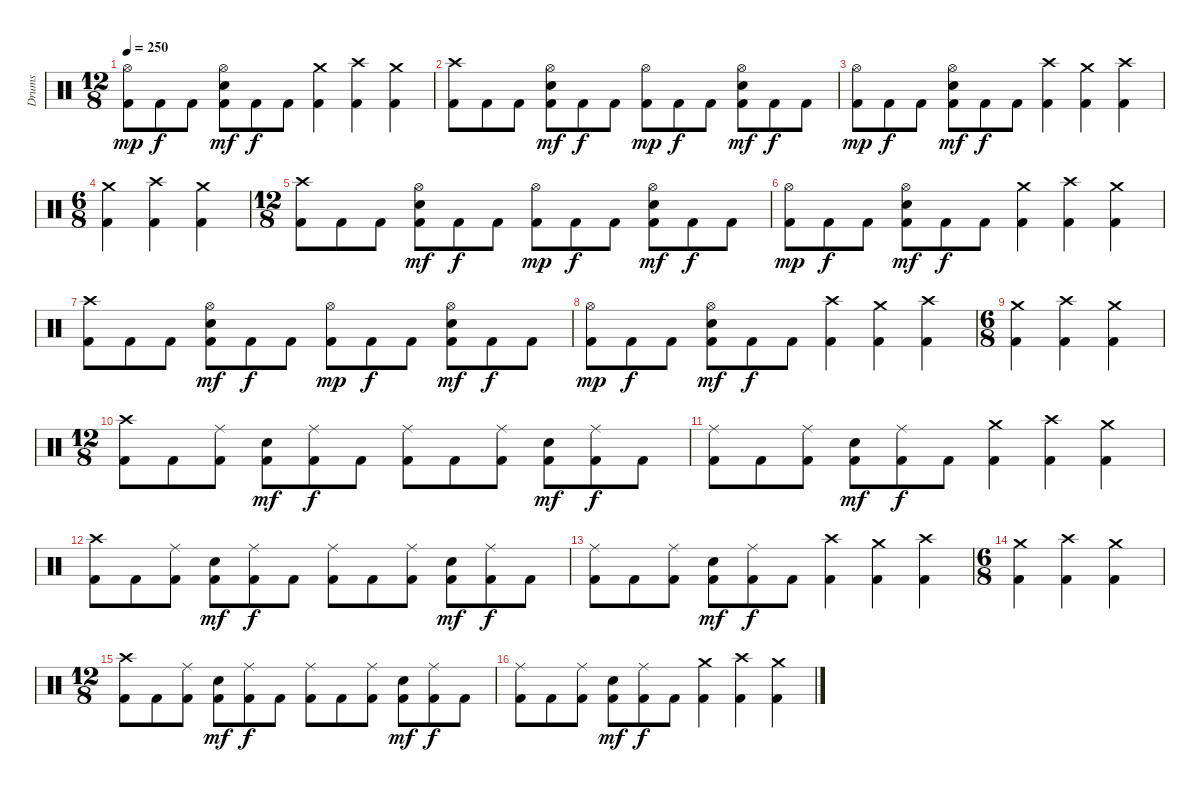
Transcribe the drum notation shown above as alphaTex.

\track ("Drums" "Drums") {instrument percussion}
\staff {score}
\articulation defaults
\ts (12 8)
\tempo 250
\clef neutral
\ks c
("Hi-Hat (open)" "Kick (hit) 2").8{dy mp} "Kick (hit) 2".8{dy f} "Kick (hit) 2".8 ("Hi-Hat (open)" "Electric Snare (hit)" "Kick (hit) 2").8{dy mf} "Kick (hit) 2".8{dy f} "Kick (hit) 2".8 ("Crash medium (hit)" "Kick (hit) 2").4 ("Crash high (hit)" "Kick (hit) 2").4 ("Crash medium (hit)" "Kick (hit) 2").4 |
("Crash high (hit)" "Kick (hit) 2").8 "Kick (hit) 2".8 "Kick (hit) 2".8 ("Hi-Hat (open)" "Electric Snare (hit)" "Kick (hit) 2").8{dy mf} "Kick (hit) 2".8{dy f} "Kick (hit) 2".8 ("Hi-Hat (open)" "Kick (hit) 2").8{dy mp} "Kick (hit) 2".8{dy f} "Kick (hit) 2".8 ("Hi-Hat (open)" "Electric Snare (hit)" "Kick (hit) 2").8{dy mf} "Kick (hit) 2".8{dy f} "Kick (hit) 2".8 |
("Hi-Hat (open)" "Kick (hit) 2").8{dy mp} "Kick (hit) 2".8{dy f} "Kick (hit) 2".8 ("Hi-Hat (open)" "Electric Snare (hit)" "Kick (hit) 2").8{dy mf} "Kick (hit) 2".8{dy f} "Kick (hit) 2".8 ("Crash high (hit)" "Kick (hit) 2").4 ("Crash medium (hit)" "Kick (hit) 2").4 ("Crash high (hit)" "Kick (hit) 2").4 |
\ts (6 8)
("Crash medium (hit)" "Kick (hit) 2").4 ("Crash high (hit)" "Kick (hit) 2").4 ("Crash medium (hit)" "Kick (hit) 2").4 |
\ts (12 8)
("Crash high (hit)" "Kick (hit) 2").8 "Kick (hit) 2".8 "Kick (hit) 2".8 ("Hi-Hat (open)" "Electric Snare (hit)" "Kick (hit) 2").8{dy mf} "Kick (hit) 2".8{dy f} "Kick (hit) 2".8 ("Hi-Hat (open)" "Kick (hit) 2").8{dy mp} "Kick (hit) 2".8{dy f} "Kick (hit) 2".8 ("Hi-Hat (open)" "Electric Snare (hit)" "Kick (hit) 2").8{dy mf} "Kick (hit) 2".8{dy f} "Kick (hit) 2".8 |
("Hi-Hat (open)" "Kick (hit) 2").8{dy mp} "Kick (hit) 2".8{dy f} "Kick (hit) 2".8 ("Hi-Hat (open)" "Electric Snare (hit)" "Kick (hit) 2").8{dy mf} "Kick (hit) 2".8{dy f} "Kick (hit) 2".8 ("Crash medium (hit)" "Kick (hit) 2").4 ("Crash high (hit)" "Kick (hit) 2").4 ("Crash medium (hit)" "Kick (hit) 2").4 |
("Crash high (hit)" "Kick (hit) 2").8 "Kick (hit) 2".8 "Kick (hit) 2".8 ("Hi-Hat (open)" "Electric Snare (hit)" "Kick (hit) 2").8{dy mf} "Kick (hit) 2".8{dy f} "Kick (hit) 2".8 ("Hi-Hat (open)" "Kick (hit) 2").8{dy mp} "Kick (hit) 2".8{dy f} "Kick (hit) 2".8 ("Hi-Hat (open)" "Electric Snare (hit)" "Kick (hit) 2").8{dy mf} "Kick (hit) 2".8{dy f} "Kick (hit) 2".8 |
("Hi-Hat (open)" "Kick (hit) 2").8{dy mp} "Kick (hit) 2".8{dy f} "Kick (hit) 2".8 ("Hi-Hat (open)" "Electric Snare (hit)" "Kick (hit) 2").8{dy mf} "Kick (hit) 2".8{dy f} "Kick (hit) 2".8 ("Crash high (hit)" "Kick (hit) 2").4 ("Crash medium (hit)" "Kick (hit) 2").4 ("Crash high (hit)" "Kick (hit) 2").4 |
\ts (6 8)
("Crash medium (hit)" "Kick (hit) 2").4 ("Crash high (hit)" "Kick (hit) 2").4 ("Crash medium (hit)" "Kick (hit) 2").4 |
\ts (12 8)
("Crash high (hit)" "Kick (hit) 2").8 "Kick (hit) 2".8 ("Ride (middle)" "Kick (hit) 2").8 ("Electric Snare (hit)" "Kick (hit) 2").8{dy mf} ("Ride (middle)" "Kick (hit) 2").8{dy f} "Kick (hit) 2".8 ("Ride (middle)" "Kick (hit) 2").8 "Kick (hit) 2".8 ("Ride (middle)" "Kick (hit) 2").8 ("Electric Snare (hit)" "Kick (hit) 2").8{dy mf} ("Ride (middle)" "Kick (hit) 2").8{dy f} "Kick (hit) 2".8 |
("Ride (middle)" "Kick (hit) 2").8 "Kick (hit) 2".8 ("Ride (middle)" "Kick (hit) 2").8 ("Electric Snare (hit)" "Kick (hit) 2").8{dy mf} ("Ride (middle)" "Kick (hit) 2").8{dy f} "Kick (hit) 2".8 ("Crash medium (hit)" "Kick (hit) 2").4 ("Crash high (hit)" "Kick (hit) 2").4 ("Crash medium (hit)" "Kick (hit) 2").4 |
("Crash high (hit)" "Kick (hit) 2").8 "Kick (hit) 2".8 ("Ride (middle)" "Kick (hit) 2").8 ("Electric Snare (hit)" "Kick (hit) 2").8{dy mf} ("Ride (middle)" "Kick (hit) 2").8{dy f} "Kick (hit) 2".8 ("Ride (middle)" "Kick (hit) 2").8 "Kick (hit) 2".8 ("Ride (middle)" "Kick (hit) 2").8 ("Electric Snare (hit)" "Kick (hit) 2").8{dy mf} ("Ride (middle)" "Kick (hit) 2").8{dy f} "Kick (hit) 2".8 |
("Ride (middle)" "Kick (hit) 2").8 "Kick (hit) 2".8 ("Ride (middle)" "Kick (hit) 2").8 ("Electric Snare (hit)" "Kick (hit) 2").8{dy mf} ("Ride (middle)" "Kick (hit) 2").8{dy f} "Kick (hit) 2".8 ("Crash high (hit)" "Kick (hit) 2").4 ("Crash medium (hit)" "Kick (hit) 2").4 ("Crash high (hit)" "Kick (hit) 2").4 |
\ts (6 8)
("Crash medium (hit)" "Kick (hit) 2").4 ("Crash high (hit)" "Kick (hit) 2").4 ("Crash medium (hit)" "Kick (hit) 2").4 |
\ts (12 8)
("Crash high (hit)" "Kick (hit) 2").8 "Kick (hit) 2".8 ("Ride (middle)" "Kick (hit) 2").8 ("Electric Snare (hit)" "Kick (hit) 2").8{dy mf} ("Ride (middle)" "Kick (hit) 2").8{dy f} "Kick (hit) 2".8 ("Ride (middle)" "Kick (hit) 2").8 "Kick (hit) 2".8 ("Ride (middle)" "Kick (hit) 2").8 ("Electric Snare (hit)" "Kick (hit) 2").8{dy mf} ("Ride (middle)" "Kick (hit) 2").8{dy f} "Kick (hit) 2".8 |
("Ride (middle)" "Kick (hit) 2").8 "Kick (hit) 2".8 ("Ride (middle)" "Kick (hit) 2").8 ("Electric Snare (hit)" "Kick (hit) 2").8{dy mf} ("Ride (middle)" "Kick (hit) 2").8{dy f} "Kick (hit) 2".8 ("Crash medium (hit)" "Kick (hit) 2").4 ("Crash high (hit)" "Kick (hit) 2").4 ("Crash medium (hit)" "Kick (hit) 2").4
